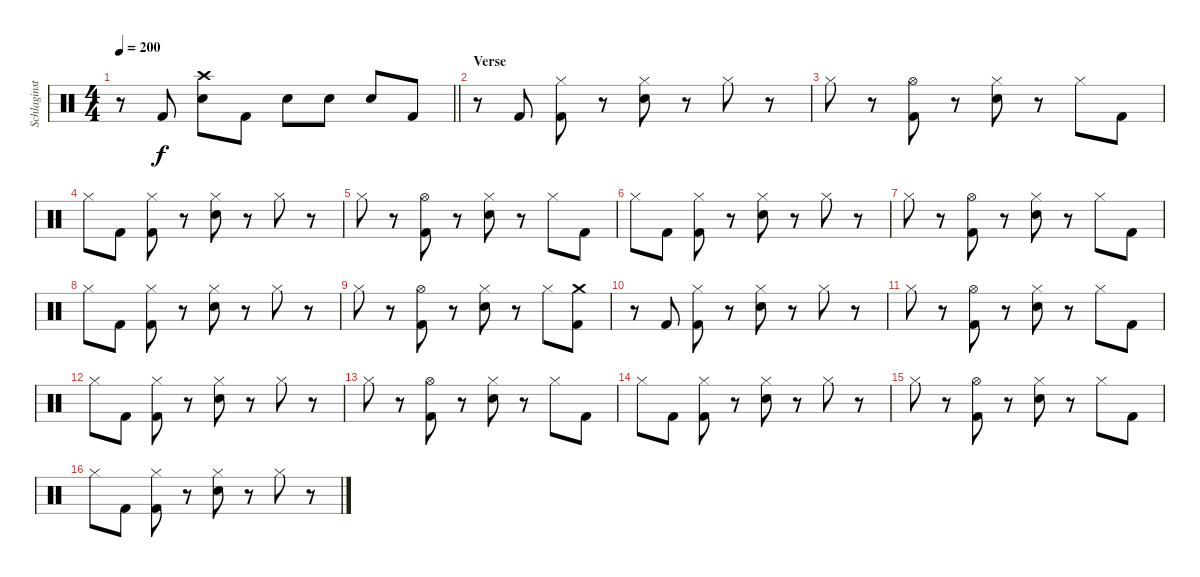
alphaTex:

\track ("Schlaginstrumente - Auswahl" "Schlaginst") {instrument percussion}
\staff {score}
\articulation defaults
\ts (4 4)
\tempo 200
\clef neutral
\barLineRight lightlight
\ks c
r.8{dy f} "Kick (hit) 2".8 ("Crash high (hit)" "Electric Snare (hit)").8 "Kick (hit) 2".8 "Electric Snare (hit)".8 "Electric Snare (hit)".8 "Electric Snare (hit)".8 "Kick (hit) 2".8 |
\section ("" "Verse")
r.8 "Kick (hit) 2".8 ("Hi-Hat (closed)" "Kick (hit) 2").8 r.8 ("Hi-Hat (closed)" "Electric Snare (hit)").8 r.8 "Hi-Hat (closed)".8 r.8 |
"Hi-Hat (closed)".8 r.8 ("Hi-Hat (open)" "Kick (hit) 2").8 r.8 ("Hi-Hat (closed)" "Electric Snare (hit)").8 r.8 "Hi-Hat (closed)".8 "Kick (hit) 2".8 |
"Hi-Hat (closed)".8 "Kick (hit) 2".8 ("Hi-Hat (closed)" "Kick (hit) 2").8 r.8 ("Hi-Hat (closed)" "Electric Snare (hit)").8 r.8 "Hi-Hat (closed)".8 r.8 |
"Hi-Hat (closed)".8 r.8 ("Hi-Hat (open)" "Kick (hit) 2").8 r.8 ("Hi-Hat (closed)" "Electric Snare (hit)").8 r.8 "Hi-Hat (closed)".8 "Kick (hit) 2".8 |
"Hi-Hat (closed)".8 "Kick (hit) 2".8 ("Hi-Hat (closed)" "Kick (hit) 2").8 r.8 ("Hi-Hat (closed)" "Electric Snare (hit)").8 r.8 "Hi-Hat (closed)".8 r.8 |
"Hi-Hat (closed)".8 r.8 ("Hi-Hat (open)" "Kick (hit) 2").8 r.8 ("Hi-Hat (closed)" "Electric Snare (hit)").8 r.8 "Hi-Hat (closed)".8 "Kick (hit) 2".8 |
"Hi-Hat (closed)".8 "Kick (hit) 2".8 ("Hi-Hat (closed)" "Kick (hit) 2").8 r.8 ("Hi-Hat (closed)" "Electric Snare (hit)").8 r.8 "Hi-Hat (closed)".8 r.8 |
"Hi-Hat (closed)".8 r.8 ("Hi-Hat (open)" "Kick (hit) 2").8 r.8 ("Hi-Hat (closed)" "Electric Snare (hit)").8 r.8 "Hi-Hat (closed)".8 ("Crash medium (hit)" "Kick (hit) 2").8 |
r.8 "Kick (hit) 2".8 ("Hi-Hat (closed)" "Kick (hit) 2").8 r.8 ("Hi-Hat (closed)" "Electric Snare (hit)").8 r.8 "Hi-Hat (closed)".8 r.8 |
"Hi-Hat (closed)".8 r.8 ("Hi-Hat (open)" "Kick (hit) 2").8 r.8 ("Hi-Hat (closed)" "Electric Snare (hit)").8 r.8 "Hi-Hat (closed)".8 "Kick (hit) 2".8 |
"Hi-Hat (closed)".8 "Kick (hit) 2".8 ("Hi-Hat (closed)" "Kick (hit) 2").8 r.8 ("Hi-Hat (closed)" "Electric Snare (hit)").8 r.8 "Hi-Hat (closed)".8 r.8 |
"Hi-Hat (closed)".8 r.8 ("Hi-Hat (open)" "Kick (hit) 2").8 r.8 ("Hi-Hat (closed)" "Electric Snare (hit)").8 r.8 "Hi-Hat (closed)".8 "Kick (hit) 2".8 |
"Hi-Hat (closed)".8 "Kick (hit) 2".8 ("Hi-Hat (closed)" "Kick (hit) 2").8 r.8 ("Hi-Hat (closed)" "Electric Snare (hit)").8 r.8 "Hi-Hat (closed)".8 r.8 |
"Hi-Hat (closed)".8 r.8 ("Hi-Hat (open)" "Kick (hit) 2").8 r.8 ("Hi-Hat (closed)" "Electric Snare (hit)").8 r.8 "Hi-Hat (closed)".8 "Kick (hit) 2".8 |
"Hi-Hat (closed)".8 "Kick (hit) 2".8 ("Hi-Hat (closed)" "Kick (hit) 2").8 r.8 ("Hi-Hat (closed)" "Electric Snare (hit)").8 r.8 "Hi-Hat (closed)".8 r.8
